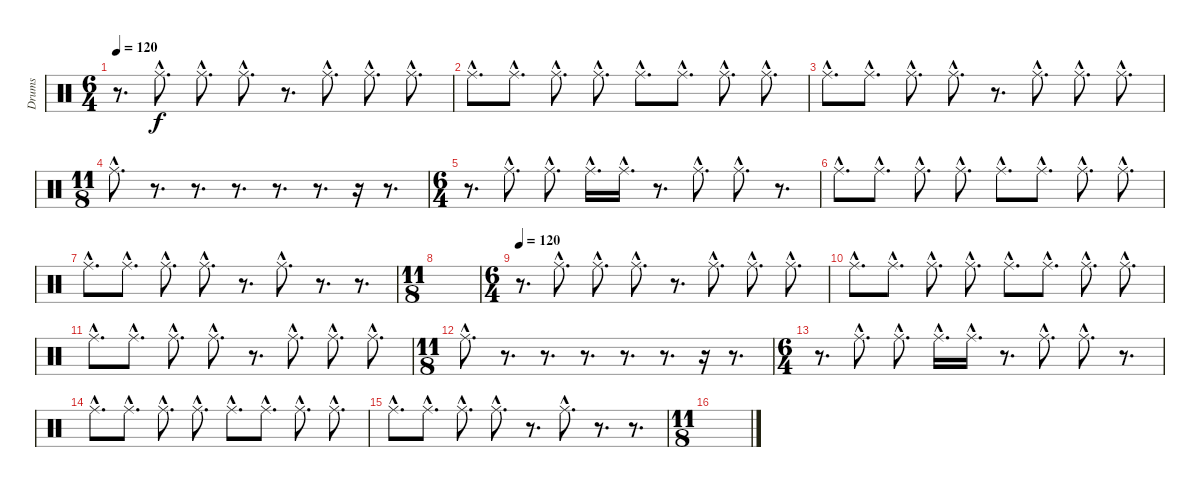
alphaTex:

\track ("Drums" "Drums") {instrument percussion}
\staff {score}
\articulation defaults
\ts (6 4)
\section ("" "")
\tempo 120
\clef neutral
\ks c
r.8{d dy f} "Ride (middle)"{hac}.8{d} "Ride (middle)"{hac}.8{d} "Ride (middle)"{hac}.8{d} r.8{d} "Ride (middle)"{hac}.8{d} "Ride (middle)"{hac}.8{d} "Ride (middle)"{hac}.8{d} |
"Ride (middle)"{hac}.8{d} "Ride (middle)"{hac}.8{d} "Ride (middle)"{hac}.8{d} "Ride (middle)"{hac}.8{d} "Ride (middle)"{hac}.8{d} "Ride (middle)"{hac}.8{d} "Ride (middle)"{hac}.8{d} "Ride (middle)"{hac}.8{d} |
"Ride (middle)"{hac}.8{d} "Ride (middle)"{hac}.8{d} "Ride (middle)"{hac}.8{d} "Ride (middle)"{hac}.8{d} r.8{d} "Ride (middle)"{hac}.8{d} "Ride (middle)"{hac}.8{d} "Ride (middle)"{hac}.8{d} |
\ts (11 8)
"Ride (middle)"{hac}.8{d} r.8{d} r.8{d} r.8{d} r.8{d} r.8{d} r.16 r.8{d} |
\ts (6 4)
r.8{d} "Ride (middle)"{hac}.8{d} "Ride (middle)"{hac}.8{d} "Ride (middle)"{hac}.16{d} "Ride (middle)"{hac}.16{d} r.8{d} "Ride (middle)"{hac}.8{d} "Ride (middle)"{hac}.8{d} r.8{d} |
"Ride (middle)"{hac}.8{d} "Ride (middle)"{hac}.8{d} "Ride (middle)"{hac}.8{d} "Ride (middle)"{hac}.8{d} "Ride (middle)"{hac}.8{d} "Ride (middle)"{hac}.8{d} "Ride (middle)"{hac}.8{d} "Ride (middle)"{hac}.8{d} |
"Ride (middle)"{hac}.8{d} "Ride (middle)"{hac}.8{d} "Ride (middle)"{hac}.8{d} "Ride (middle)"{hac}.8{d} r.8{d} "Ride (middle)"{hac}.8{d} r.8{d} r.8{d} |
\ts (11 8)
|
\ts (6 4)
\tempo 120
r.8{d} "Ride (middle)"{hac}.8{d} "Ride (middle)"{hac}.8{d} "Ride (middle)"{hac}.8{d} r.8{d} "Ride (middle)"{hac}.8{d} "Ride (middle)"{hac}.8{d} "Ride (middle)"{hac}.8{d} |
"Ride (middle)"{hac}.8{d} "Ride (middle)"{hac}.8{d} "Ride (middle)"{hac}.8{d} "Ride (middle)"{hac}.8{d} "Ride (middle)"{hac}.8{d} "Ride (middle)"{hac}.8{d} "Ride (middle)"{hac}.8{d} "Ride (middle)"{hac}.8{d} |
"Ride (middle)"{hac}.8{d} "Ride (middle)"{hac}.8{d} "Ride (middle)"{hac}.8{d} "Ride (middle)"{hac}.8{d} r.8{d} "Ride (middle)"{hac}.8{d} "Ride (middle)"{hac}.8{d} "Ride (middle)"{hac}.8{d} |
\ts (11 8)
"Ride (middle)"{hac}.8{d} r.8{d} r.8{d} r.8{d} r.8{d} r.8{d} r.16 r.8{d} |
\ts (6 4)
r.8{d} "Ride (middle)"{hac}.8{d} "Ride (middle)"{hac}.8{d} "Ride (middle)"{hac}.16{d} "Ride (middle)"{hac}.16{d} r.8{d} "Ride (middle)"{hac}.8{d} "Ride (middle)"{hac}.8{d} r.8{d} |
"Ride (middle)"{hac}.8{d} "Ride (middle)"{hac}.8{d} "Ride (middle)"{hac}.8{d} "Ride (middle)"{hac}.8{d} "Ride (middle)"{hac}.8{d} "Ride (middle)"{hac}.8{d} "Ride (middle)"{hac}.8{d} "Ride (middle)"{hac}.8{d} |
"Ride (middle)"{hac}.8{d} "Ride (middle)"{hac}.8{d} "Ride (middle)"{hac}.8{d} "Ride (middle)"{hac}.8{d} r.8{d} "Ride (middle)"{hac}.8{d} r.8{d} r.8{d} |
\ts (11 8)
